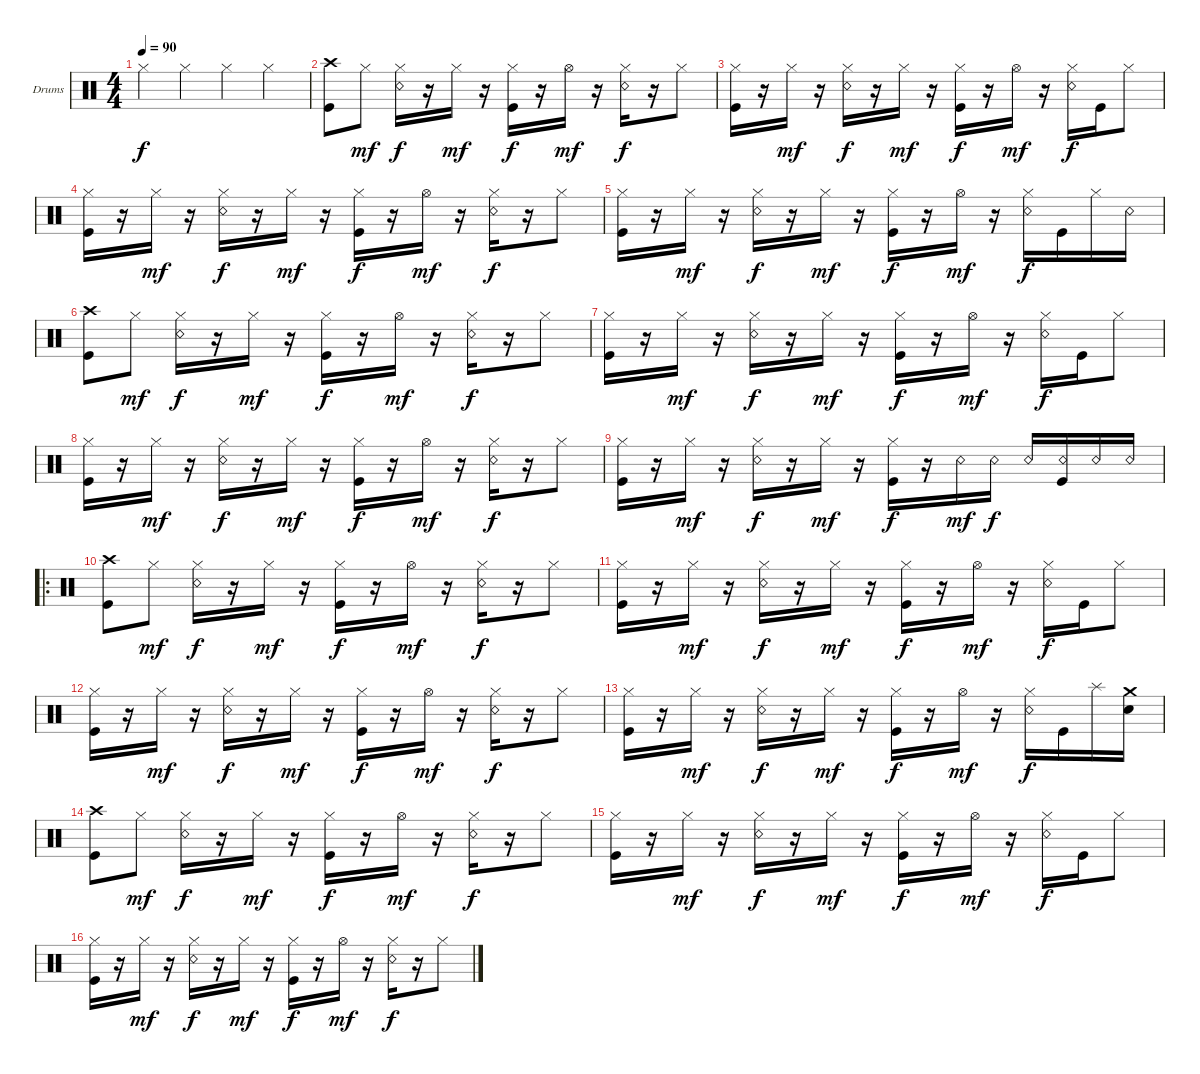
\defaultSystemsLayout 4
\bracketExtendMode groupsimilarinstruments
\firstSystemTrackNameOrientation horizontal
\otherSystemsTrackNameOrientation horizontal
\track ("Batterie" "Drums") {instrument percussion}
\staff {score}
\articulation defaults
\ts (4 4)
\tempo 90
\clef neutral
\ks c "Hi-Hat (closed)".4{dy f} "Hi-Hat (closed)".4 "Hi-Hat (closed)".4 "Hi-Hat (closed)".4
|
("Kick (hit)" "Crash high (hit)").8 "Hi-Hat (closed)".8{dy mf} ("Snare (rim shot)" "Hi-Hat (closed)").16{dy f} r.16 "Hi-Hat (closed)".16{dy mf} r.16 ("Kick (hit)" "Hi-Hat (closed)").16{dy f} r.16 "Hi-Hat (open)".16{dy mf} r.16 ("Snare (rim shot)" "Hi-Hat (closed)").16{dy f} r.16 "Hi-Hat (closed)".8 |
("Kick (hit)" "Hi-Hat (closed)").16 r.16 "Hi-Hat (closed)".16{dy mf} r.16 ("Snare (rim shot)" "Hi-Hat (closed)").16{dy f} r.16 "Hi-Hat (closed)".16{dy mf} r.16 ("Kick (hit)" "Hi-Hat (closed)").16{dy f} r.16 "Hi-Hat (open)".16{dy mf} r.16 ("Snare (rim shot)" "Hi-Hat (closed)").16{dy f} "Kick (hit)".16 "Hi-Hat (closed)".8 |
("Kick (hit)" "Hi-Hat (closed)").16 r.16 "Hi-Hat (closed)".16{dy mf} r.16 ("Snare (rim shot)" "Hi-Hat (closed)").16{dy f} r.16 "Hi-Hat (closed)".16{dy mf} r.16 ("Kick (hit)" "Hi-Hat (closed)").16{dy f} r.16 "Hi-Hat (open)".16{dy mf} r.16 ("Snare (rim shot)" "Hi-Hat (closed)").16{dy f} r.16 "Hi-Hat (closed)".8 |
("Kick (hit)" "Hi-Hat (closed)").16 r.16 "Hi-Hat (closed)".16{dy mf} r.16 ("Snare (rim shot)" "Hi-Hat (closed)").16{dy f} r.16 "Hi-Hat (closed)".16{dy mf} r.16 ("Kick (hit)" "Hi-Hat (closed)").16{dy f} r.16 "Hi-Hat (open)".16{dy mf} r.16 ("Snare (rim shot)" "Hi-Hat (closed)").16{dy f} "Kick (hit)".16 "Hi-Hat (closed)".16 "Snare (rim shot)".16 |
("Kick (hit)" "Crash high (hit)").8 "Hi-Hat (closed)".8{dy mf} ("Snare (rim shot)" "Hi-Hat (closed)").16{dy f} r.16 "Hi-Hat (closed)".16{dy mf} r.16 ("Kick (hit)" "Hi-Hat (closed)").16{dy f} r.16 "Hi-Hat (open)".16{dy mf} r.16 ("Snare (rim shot)" "Hi-Hat (closed)").16{dy f} r.16 "Hi-Hat (closed)".8 |
("Kick (hit)" "Hi-Hat (closed)").16 r.16 "Hi-Hat (closed)".16{dy mf} r.16 ("Snare (rim shot)" "Hi-Hat (closed)").16{dy f} r.16 "Hi-Hat (closed)".16{dy mf} r.16 ("Kick (hit)" "Hi-Hat (closed)").16{dy f} r.16 "Hi-Hat (open)".16{dy mf} r.16 ("Snare (rim shot)" "Hi-Hat (closed)").16{dy f} "Kick (hit)".16 "Hi-Hat (closed)".8 |
("Kick (hit)" "Hi-Hat (closed)").16 r.16 "Hi-Hat (closed)".16{dy mf} r.16 ("Snare (rim shot)" "Hi-Hat (closed)").16{dy f} r.16 "Hi-Hat (closed)".16{dy mf} r.16 ("Kick (hit)" "Hi-Hat (closed)").16{dy f} r.16 "Hi-Hat (open)".16{dy mf} r.16 ("Snare (rim shot)" "Hi-Hat (closed)").16{dy f} r.16 "Hi-Hat (closed)".8 |
("Kick (hit)" "Hi-Hat (closed)").16 r.16 "Hi-Hat (closed)".16{dy mf} r.16 ("Snare (rim shot)" "Hi-Hat (closed)").16{dy f} r.16 "Hi-Hat (closed)".16{dy mf} r.16 ("Kick (hit)" "Hi-Hat (closed)").16{dy f} r.16 "Snare (rim shot)".16{dy mf} "Snare (rim shot)".16{dy f} "Snare (rim shot)".16 ("Kick (hit)" "Snare (rim shot)").16 "Snare (rim shot)".16 "Snare (rim shot)".16 |
\ro
("Kick (hit)" "Crash high (hit)").8 "Hi-Hat (closed)".8{dy mf} ("Snare (rim shot)" "Hi-Hat (closed)").16{dy f} r.16 "Hi-Hat (closed)".16{dy mf} r.16 ("Kick (hit)" "Hi-Hat (closed)").16{dy f} r.16 "Hi-Hat (open)".16{dy mf} r.16 ("Snare (rim shot)" "Hi-Hat (closed)").16{dy f} r.16 "Hi-Hat (closed)".8 |
("Kick (hit)" "Hi-Hat (closed)").16 r.16 "Hi-Hat (closed)".16{dy mf} r.16 ("Snare (rim shot)" "Hi-Hat (closed)").16{dy f} r.16 "Hi-Hat (closed)".16{dy mf} r.16 ("Kick (hit)" "Hi-Hat (closed)").16{dy f} r.16 "Hi-Hat (open)".16{dy mf} r.16 ("Snare (rim shot)" "Hi-Hat (closed)").16{dy f} "Kick (hit)".16 "Hi-Hat (closed)".8 |
("Kick (hit)" "Hi-Hat (closed)").16 r.16 "Hi-Hat (closed)".16{dy mf} r.16 ("Snare (rim shot)" "Hi-Hat (closed)").16{dy f} r.16 "Hi-Hat (closed)".16{dy mf} r.16 ("Kick (hit)" "Hi-Hat (closed)").16{dy f} r.16 "Hi-Hat (open)".16{dy mf} r.16 ("Snare (rim shot)" "Hi-Hat (closed)").16{dy f} r.16 "Hi-Hat (closed)".8 |
("Kick (hit)" "Hi-Hat (closed)").16 r.16 "Hi-Hat (closed)".16{dy mf} r.16 ("Snare (rim shot)" "Hi-Hat (closed)").16{dy f} r.16 "Hi-Hat (closed)".16{dy mf} r.16 ("Kick (hit)" "Hi-Hat (closed)").16{dy f} r.16 "Hi-Hat (open)".16{dy mf} r.16 ("Snare (rim shot)" "Hi-Hat (closed)").16{dy f} "Kick (hit)".16 "Splash (hit)".16 ("Snare (hit) 2" "Crash medium (hit)").16 |
("Kick (hit)" "Crash high (hit)").8 "Hi-Hat (closed)".8{dy mf} ("Snare (rim shot)" "Hi-Hat (closed)").16{dy f} r.16 "Hi-Hat (closed)".16{dy mf} r.16 ("Kick (hit)" "Hi-Hat (closed)").16{dy f} r.16 "Hi-Hat (open)".16{dy mf} r.16 ("Snare (rim shot)" "Hi-Hat (closed)").16{dy f} r.16 "Hi-Hat (closed)".8 |
("Kick (hit)" "Hi-Hat (closed)").16 r.16 "Hi-Hat (closed)".16{dy mf} r.16 ("Snare (rim shot)" "Hi-Hat (closed)").16{dy f} r.16 "Hi-Hat (closed)".16{dy mf} r.16 ("Kick (hit)" "Hi-Hat (closed)").16{dy f} r.16 "Hi-Hat (open)".16{dy mf} r.16 ("Snare (rim shot)" "Hi-Hat (closed)").16{dy f} "Kick (hit)".16 "Hi-Hat (closed)".8 |
("Kick (hit)" "Hi-Hat (closed)").16 r.16 "Hi-Hat (closed)".16{dy mf} r.16 ("Snare (rim shot)" "Hi-Hat (closed)").16{dy f} r.16 "Hi-Hat (closed)".16{dy mf} r.16 ("Kick (hit)" "Hi-Hat (closed)").16{dy f} r.16 "Hi-Hat (open)".16{dy mf} r.16 ("Snare (rim shot)" "Hi-Hat (closed)").16{dy f} r.16 "Hi-Hat (closed)".8
